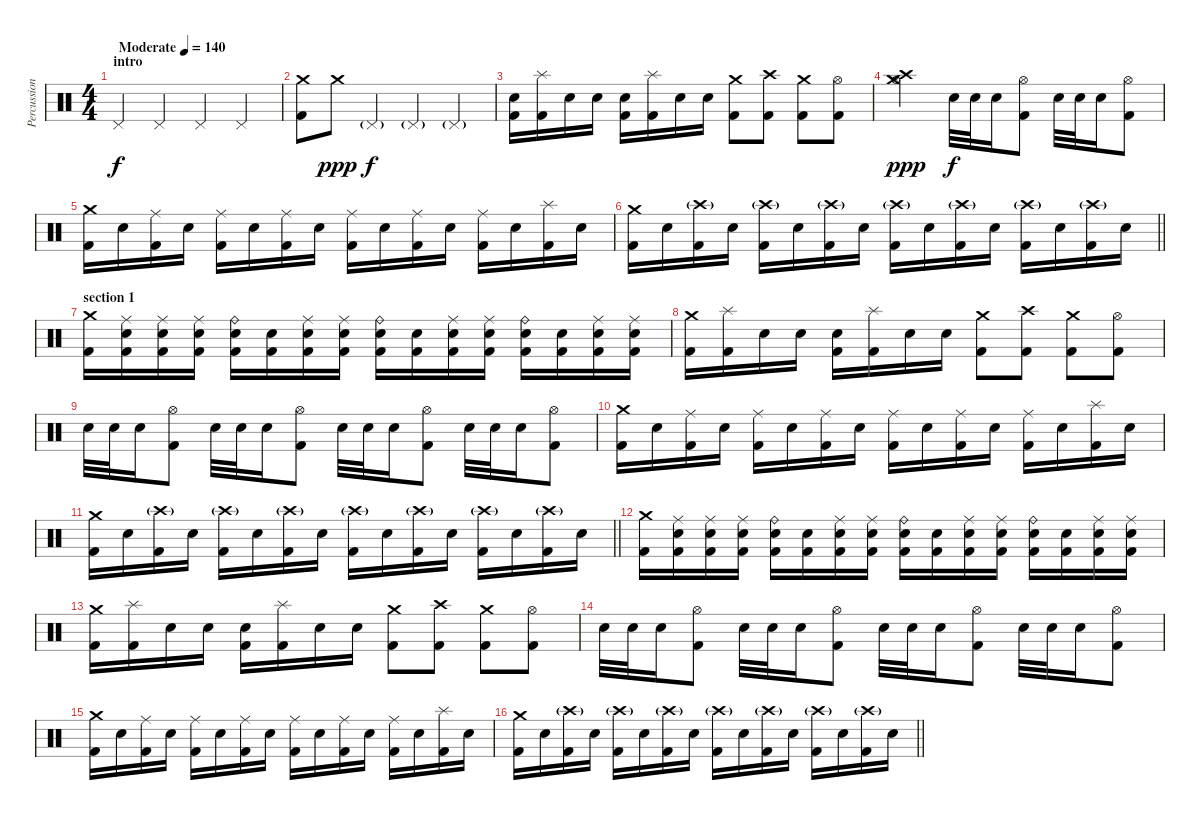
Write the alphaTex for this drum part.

\track ("Percussion" "Percussion") {instrument percussion}
\staff {score}
\articulation defaults
\ts (4 4)
\section ("" "intro")
\tempo (140 "Moderate")
\clef neutral
\ks c "Pedal Hi-Hat (hit)".4{dy f} "Pedal Hi-Hat (hit)".4 "Pedal Hi-Hat (hit)".4 "Pedal Hi-Hat (hit)".4
|
("Crash medium (hit)" "Kick (hit) 2").8 "Crash medium (hit)".8{dy ppp} "Pedal Hi-Hat (hit)"{g}.4{dy f} "Pedal Hi-Hat (hit)"{g}.4 "Pedal Hi-Hat (hit)"{g}.4 |
("Electric Snare (hit)" "Kick (hit) 2").16 ("Splash (hit)" "Kick (hit) 2").16 "Electric Snare (hit)".16 "Electric Snare (hit)".16 ("Electric Snare (hit)" "Kick (hit) 2").16 ("Splash (hit)" "Kick (hit) 2").16 "Electric Snare (hit)".16 "Electric Snare (hit)".16 ("Crash medium (hit)" "Kick (hit) 2").8 ("Crash high (hit)" "Kick (hit) 2").8 ("Crash medium (hit)" "Kick (hit) 2").8 ("Hi-Hat (open)" "Kick (hit) 2").8 |
("Hi-Hat (open)" "Crash medium (hit)" "Crash high (hit)").2{dy ppp} "Electric Snare (hit)".32{dy f} "Electric Snare (hit)".32 "Electric Snare (hit)".16 ("Hi-Hat (open)" "Kick (hit) 2").8 "Electric Snare (hit)".32 "Electric Snare (hit)".32 "Electric Snare (hit)".16 ("Hi-Hat (open)" "Kick (hit) 2").8 |
("Crash medium (hit)" "Kick (hit) 2").16 "Electric Snare (hit)".16 ("Ride (middle)" "Kick (hit) 2").16 "Electric Snare (hit)".16 ("Ride (middle)" "Kick (hit) 2").16 "Electric Snare (hit)".16 ("Ride (middle)" "Kick (hit) 2").16 "Electric Snare (hit)".16 ("Ride (middle)" "Kick (hit) 2").16 "Electric Snare (hit)".16 ("Ride (middle)" "Kick (hit) 2").16 "Electric Snare (hit)".16 ("Ride (middle)" "Kick (hit) 2").16 "Electric Snare (hit)".16 ("Splash (hit)" "Kick (hit) 2").16 "Electric Snare (hit)".16 |
\barLineRight lightlight
("Crash medium (hit)" "Kick (hit) 2").16 "Electric Snare (hit)".16 ("Crash high (hit)"{g} "Kick (hit) 2").16 "Electric Snare (hit)".16 ("Crash high (hit)"{g} "Kick (hit) 2").16 "Electric Snare (hit)".16 ("Crash high (hit)"{g} "Kick (hit) 2").16 "Electric Snare (hit)".16 ("Crash high (hit)"{g} "Kick (hit) 2").16 "Electric Snare (hit)".16 ("Crash high (hit)"{g} "Kick (hit) 2").16 "Electric Snare (hit)".16 ("Crash high (hit)"{g} "Kick (hit) 2").16 "Electric Snare (hit)".16 ("Crash high (hit)"{g} "Kick (hit) 2").16 "Electric Snare (hit)".16 |
\section ("" "section 1")
("Crash medium (hit)" "Kick (hit) 2").16 ("Ride (middle)" "Electric Snare (hit)" "Kick (hit) 2").16 ("Ride (middle)" "Electric Snare (hit)" "Kick (hit) 2").16 ("Ride (middle)" "Electric Snare (hit)" "Kick (hit) 2").16 ("Ride (bell)" "Electric Snare (hit)" "Kick (hit) 2").16 ("Electric Snare (hit)" "Kick (hit) 2").16 ("Ride (middle)" "Electric Snare (hit)" "Kick (hit) 2").16 ("Ride (middle)" "Electric Snare (hit)" "Kick (hit) 2").16 ("Ride (bell)" "Electric Snare (hit)" "Kick (hit) 2").16 ("Electric Snare (hit)" "Kick (hit) 2").16 ("Ride (middle)" "Electric Snare (hit)" "Kick (hit) 2").16 ("Ride (middle)" "Electric Snare (hit)" "Kick (hit) 2").16 ("Ride (bell)" "Electric Snare (hit)" "Kick (hit) 2").16 ("Electric Snare (hit)" "Kick (hit) 2").16 ("Ride (middle)" "Electric Snare (hit)" "Kick (hit) 2").16 ("Ride (middle)" "Electric Snare (hit)" "Kick (hit) 2").16 |
("Crash medium (hit)" "Kick (hit) 2").16 ("Splash (hit)" "Kick (hit) 2").16 "Electric Snare (hit)".16 "Electric Snare (hit)".16 ("Electric Snare (hit)" "Kick (hit) 2").16 ("Splash (hit)" "Kick (hit) 2").16 "Electric Snare (hit)".16 "Electric Snare (hit)".16 ("Crash medium (hit)" "Kick (hit) 2").8 ("Crash high (hit)" "Kick (hit) 2").8 ("Crash medium (hit)" "Kick (hit) 2").8 ("Hi-Hat (open)" "Kick (hit) 2").8 |
"Electric Snare (hit)".32 "Electric Snare (hit)".32 "Electric Snare (hit)".16 ("Hi-Hat (open)" "Kick (hit) 2").8 "Electric Snare (hit)".32 "Electric Snare (hit)".32 "Electric Snare (hit)".16 ("Hi-Hat (open)" "Kick (hit) 2").8 "Electric Snare (hit)".32 "Electric Snare (hit)".32 "Electric Snare (hit)".16 ("Hi-Hat (open)" "Kick (hit) 2").8 "Electric Snare (hit)".32 "Electric Snare (hit)".32 "Electric Snare (hit)".16 ("Hi-Hat (open)" "Kick (hit) 2").8 |
("Crash medium (hit)" "Kick (hit) 2").16 "Electric Snare (hit)".16 ("Ride (middle)" "Kick (hit) 2").16 "Electric Snare (hit)".16 ("Ride (middle)" "Kick (hit) 2").16 "Electric Snare (hit)".16 ("Ride (middle)" "Kick (hit) 2").16 "Electric Snare (hit)".16 ("Ride (middle)" "Kick (hit) 2").16 "Electric Snare (hit)".16 ("Ride (middle)" "Kick (hit) 2").16 "Electric Snare (hit)".16 ("Ride (middle)" "Kick (hit) 2").16 "Electric Snare (hit)".16 ("Splash (hit)" "Kick (hit) 2").16 "Electric Snare (hit)".16 |
\barLineRight lightlight
("Crash medium (hit)" "Kick (hit) 2").16 "Electric Snare (hit)".16 ("Crash high (hit)"{g} "Kick (hit) 2").16 "Electric Snare (hit)".16 ("Crash high (hit)"{g} "Kick (hit) 2").16 "Electric Snare (hit)".16 ("Crash high (hit)"{g} "Kick (hit) 2").16 "Electric Snare (hit)".16 ("Crash high (hit)"{g} "Kick (hit) 2").16 "Electric Snare (hit)".16 ("Crash high (hit)"{g} "Kick (hit) 2").16 "Electric Snare (hit)".16 ("Crash high (hit)"{g} "Kick (hit) 2").16 "Electric Snare (hit)".16 ("Crash high (hit)"{g} "Kick (hit) 2").16 "Electric Snare (hit)".16 |
("Crash medium (hit)" "Kick (hit) 2").16 ("Ride (middle)" "Electric Snare (hit)" "Kick (hit) 2").16 ("Ride (middle)" "Electric Snare (hit)" "Kick (hit) 2").16 ("Ride (middle)" "Electric Snare (hit)" "Kick (hit) 2").16 ("Ride (bell)" "Electric Snare (hit)" "Kick (hit) 2").16 ("Electric Snare (hit)" "Kick (hit) 2").16 ("Ride (middle)" "Electric Snare (hit)" "Kick (hit) 2").16 ("Ride (middle)" "Electric Snare (hit)" "Kick (hit) 2").16 ("Ride (bell)" "Electric Snare (hit)" "Kick (hit) 2").16 ("Electric Snare (hit)" "Kick (hit) 2").16 ("Ride (middle)" "Electric Snare (hit)" "Kick (hit) 2").16 ("Ride (middle)" "Electric Snare (hit)" "Kick (hit) 2").16 ("Ride (bell)" "Electric Snare (hit)" "Kick (hit) 2").16 ("Electric Snare (hit)" "Kick (hit) 2").16 ("Ride (middle)" "Electric Snare (hit)" "Kick (hit) 2").16 ("Ride (middle)" "Electric Snare (hit)" "Kick (hit) 2").16 |
("Crash medium (hit)" "Kick (hit) 2").16 ("Splash (hit)" "Kick (hit) 2").16 "Electric Snare (hit)".16 "Electric Snare (hit)".16 ("Electric Snare (hit)" "Kick (hit) 2").16 ("Splash (hit)" "Kick (hit) 2").16 "Electric Snare (hit)".16 "Electric Snare (hit)".16 ("Crash medium (hit)" "Kick (hit) 2").8 ("Crash high (hit)" "Kick (hit) 2").8 ("Crash medium (hit)" "Kick (hit) 2").8 ("Hi-Hat (open)" "Kick (hit) 2").8 |
"Electric Snare (hit)".32 "Electric Snare (hit)".32 "Electric Snare (hit)".16 ("Hi-Hat (open)" "Kick (hit) 2").8 "Electric Snare (hit)".32 "Electric Snare (hit)".32 "Electric Snare (hit)".16 ("Hi-Hat (open)" "Kick (hit) 2").8 "Electric Snare (hit)".32 "Electric Snare (hit)".32 "Electric Snare (hit)".16 ("Hi-Hat (open)" "Kick (hit) 2").8 "Electric Snare (hit)".32 "Electric Snare (hit)".32 "Electric Snare (hit)".16 ("Hi-Hat (open)" "Kick (hit) 2").8 |
("Crash medium (hit)" "Kick (hit) 2").16 "Electric Snare (hit)".16 ("Ride (middle)" "Kick (hit) 2").16 "Electric Snare (hit)".16 ("Ride (middle)" "Kick (hit) 2").16 "Electric Snare (hit)".16 ("Ride (middle)" "Kick (hit) 2").16 "Electric Snare (hit)".16 ("Ride (middle)" "Kick (hit) 2").16 "Electric Snare (hit)".16 ("Ride (middle)" "Kick (hit) 2").16 "Electric Snare (hit)".16 ("Ride (middle)" "Kick (hit) 2").16 "Electric Snare (hit)".16 ("Splash (hit)" "Kick (hit) 2").16 "Electric Snare (hit)".16 |
\barLineRight lightlight
("Crash medium (hit)" "Kick (hit) 2").16 "Electric Snare (hit)".16 ("Crash high (hit)"{g} "Kick (hit) 2").16 "Electric Snare (hit)".16 ("Crash high (hit)"{g} "Kick (hit) 2").16 "Electric Snare (hit)".16 ("Crash high (hit)"{g} "Kick (hit) 2").16 "Electric Snare (hit)".16 ("Crash high (hit)"{g} "Kick (hit) 2").16 "Electric Snare (hit)".16 ("Crash high (hit)"{g} "Kick (hit) 2").16 "Electric Snare (hit)".16 ("Crash high (hit)"{g} "Kick (hit) 2").16 "Electric Snare (hit)".16 ("Crash high (hit)"{g} "Kick (hit) 2").16 "Electric Snare (hit)".16
